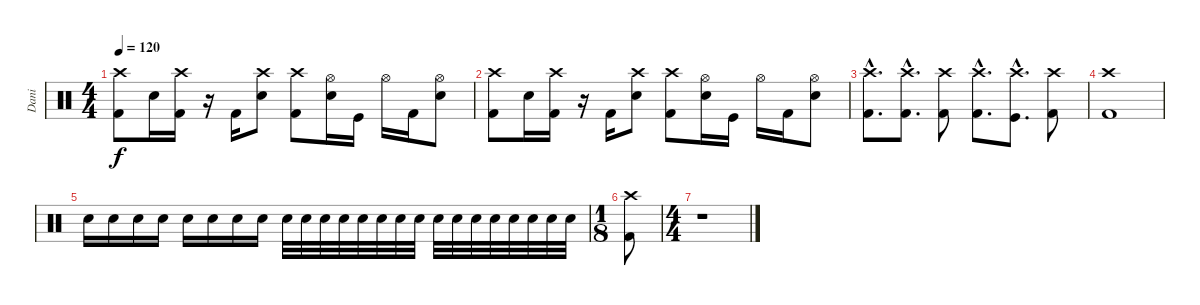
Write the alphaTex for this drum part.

\track ("Dani" "Dani") {instrument percussion}
\staff {score}
\articulation defaults
\ts (4 4)
\tempo 120
\clef neutral
\ks c
("Crash high (hit)" "Kick (hit) 2").8{dy f} "Snare (hit) 2".16 ("Crash high (hit)" "Kick (hit) 2").16 r.16 "Kick (hit) 2".16 ("Crash high (hit)" "Snare (hit) 2").8 ("Crash high (hit)" "Kick (hit) 2").8 ("Hi-Hat (open)" "Snare (hit) 2").16 "Kick (hit)".16 "Hi-Hat (open)".16 "Kick (hit) 2".16 ("Hi-Hat (open)" "Snare (hit) 2").8 |
("Crash high (hit)" "Kick (hit) 2").8 "Snare (hit) 2".16 ("Crash high (hit)" "Kick (hit) 2").16 r.16 "Kick (hit) 2".16 ("Crash high (hit)" "Snare (hit) 2").8 ("Crash high (hit)" "Kick (hit) 2").8 ("Hi-Hat (open)" "Snare (hit) 2").16 "Kick (hit)".16 "Hi-Hat (open)".16 "Kick (hit) 2".16 ("Hi-Hat (open)" "Snare (hit) 2").8 |
("Crash high (hit)"{hac} "Kick (hit) 2"{hac}).8{d} ("Crash high (hit)"{hac} "Kick (hit) 2"{hac}).8{d} ("Crash high (hit)" "Kick (hit) 2").8 ("Crash high (hit)"{hac} "Kick (hit) 2"{hac}).8{d} ("Crash high (hit)"{hac} "Kick (hit)"{hac}).8{d} ("Crash high (hit)" "Kick (hit) 2").8 |
("Crash high (hit)" "Kick (hit) 2").1 |
"Snare (hit) 2".16 "Snare (hit) 2".16 "Snare (hit) 2".16 "Snare (hit) 2".16 "Snare (hit) 2".16 "Snare (hit) 2".16 "Snare (hit) 2".16 "Snare (hit) 2".16 "Snare (hit) 2".32 "Snare (hit) 2".32 "Snare (hit) 2".32 "Snare (hit) 2".32 "Snare (hit) 2".32 "Snare (hit) 2".32 "Snare (hit) 2".32 "Snare (hit) 2".32 "Snare (hit) 2".32 "Snare (hit) 2".32 "Snare (hit) 2".32 "Snare (hit) 2".32 "Snare (hit) 2".32 "Snare (hit) 2".32 "Snare (hit) 2".32 "Snare (hit) 2".32 |
\ts (1 8)
("Crash high (hit)" "Kick (hit) 2").8 |
\ts (4 4)
r.1
